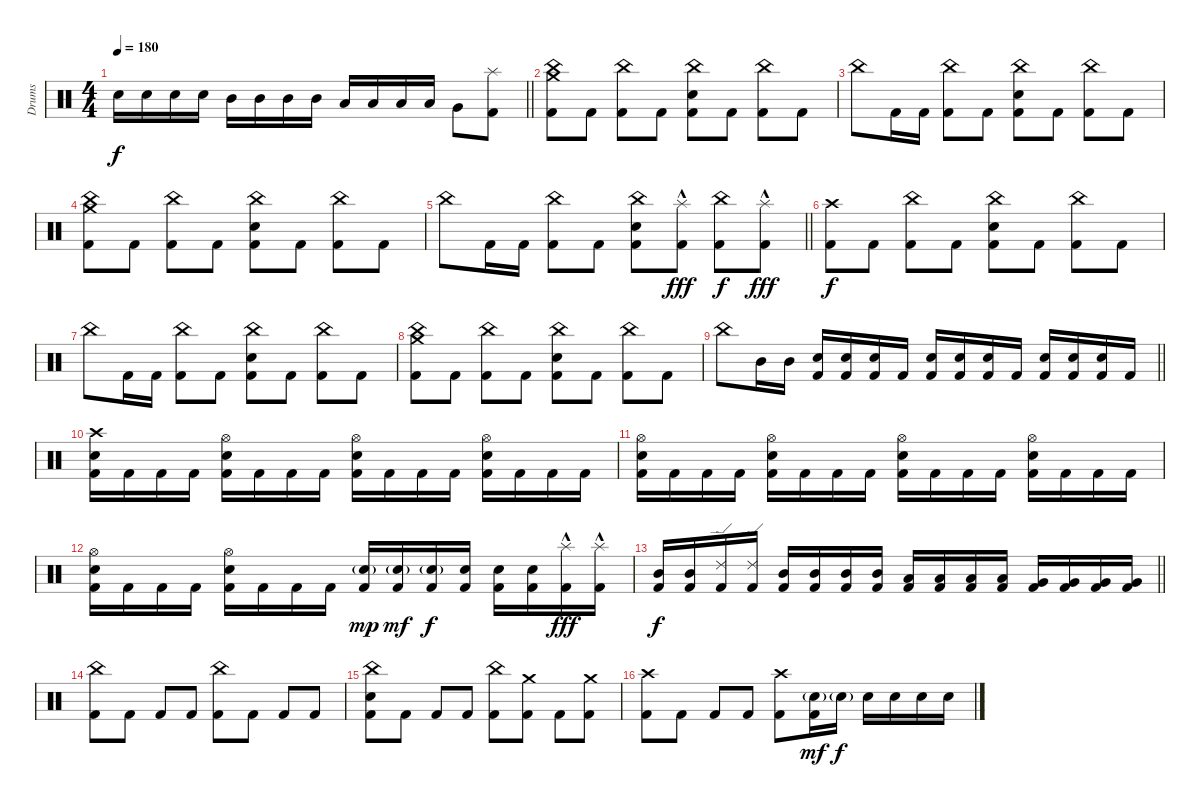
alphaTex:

\track ("Drums" "Drums") {instrument percussion}
\staff {score}
\articulation defaults
\ts (4 4)
\tempo 180
\clef neutral
\barLineRight lightlight
\ks c "Electric Snare (hit)".16{dy f} "Electric Snare (hit)".16 "Electric Snare (hit)".16 "Electric Snare (hit)".16 "Mid Tom (hit)".16 "Mid Tom (hit)".16 "Mid Tom (hit)".16 "Mid Tom (hit)".16 "Low Tom (hit)".16 "Low Tom (hit)".16 "Low Tom (hit)".16 "Low Tom (hit)".16 "Very Low Tom (hit)".8
("Splash (hit)" "Kick (hit) 2").8 |
("China (hit)" "Crash medium (hit)" "Kick (hit) 2").8 "Kick (hit) 2".8 ("China (hit)" "Kick (hit) 2").8 "Kick (hit) 2".8 ("China (hit)" "Electric Snare (hit)" "Kick (hit) 2").8 "Kick (hit) 2".8 ("China (hit)" "Kick (hit) 2").8 "Kick (hit) 2".8 |
"China (hit)".8 "Kick (hit) 2".16 "Kick (hit) 2".16 ("China (hit)" "Kick (hit) 2").8 "Kick (hit) 2".8 ("China (hit)" "Electric Snare (hit)" "Kick (hit) 2").8 "Kick (hit) 2".8 ("China (hit)" "Kick (hit) 2").8 "Kick (hit) 2".8 |
("China (hit)" "Crash medium (hit)" "Kick (hit) 2").8 "Kick (hit) 2".8 ("China (hit)" "Kick (hit) 2").8 "Kick (hit) 2".8 ("China (hit)" "Electric Snare (hit)" "Kick (hit) 2").8 "Kick (hit) 2".8 ("China (hit)" "Kick (hit) 2").8 "Kick (hit) 2".8 |
\barLineRight lightlight "China (hit)".8 "Kick (hit) 2".16 "Kick (hit) 2".16
("China (hit)" "Kick (hit) 2").8 "Kick (hit) 2".8 ("China (hit)" "Electric Snare (hit)" "Kick (hit) 2").8 ("Splash (hit)"{hac} "Kick (hit) 2").8{dy fff} ("China (hit)" "Kick (hit) 2").8{dy f} ("Splash (hit)"{hac} "Kick (hit) 2").8{dy fff} |
("Crash high (hit)" "Kick (hit) 2").8{dy f} "Kick (hit) 2".8 ("China (hit)" "Kick (hit) 2").8 "Kick (hit) 2".8 ("China (hit)" "Electric Snare (hit)" "Kick (hit) 2").8 "Kick (hit) 2".8 ("China (hit)" "Kick (hit) 2").8 "Kick (hit) 2".8 |
"China (hit)".8 "Kick (hit) 2".16 "Kick (hit) 2".16 ("China (hit)" "Kick (hit) 2").8 "Kick (hit) 2".8 ("China (hit)" "Electric Snare (hit)" "Kick (hit) 2").8 "Kick (hit) 2".8 ("China (hit)" "Kick (hit) 2").8 "Kick (hit) 2".8 |
("China (hit)" "Crash medium (hit)" "Kick (hit) 2").8 "Kick (hit) 2".8 ("China (hit)" "Kick (hit) 2").8 "Kick (hit) 2".8 ("China (hit)" "Electric Snare (hit)" "Kick (hit) 2").8 "Kick (hit) 2".8 ("China (hit)" "Kick (hit) 2").8 "Kick (hit) 2".8 |
\barLineRight lightlight "China (hit)".8 "Mid Tom (hit)".16 "Mid Tom (hit)".16
("Electric Snare (hit)" "Kick (hit) 2").16 ("Electric Snare (hit)" "Kick (hit) 2").16 ("Electric Snare (hit)" "Kick (hit) 2").16 "Kick (hit) 2".16 ("Electric Snare (hit)" "Kick (hit) 2").16 ("Electric Snare (hit)" "Kick (hit) 2").16 ("Electric Snare (hit)" "Kick (hit) 2").16 "Kick (hit) 2".16 ("Electric Snare (hit)" "Kick (hit) 2").16 ("Electric Snare (hit)" "Kick (hit) 2").16 ("Electric Snare (hit)" "Kick (hit) 2").16 "Kick (hit) 2".16 |
("Crash high (hit)" "Electric Snare (hit)" "Kick (hit) 2").16 "Kick (hit) 2".16 "Kick (hit) 2".16 "Kick (hit) 2".16 ("Hi-Hat (open)" "Electric Snare (hit)" "Kick (hit) 2").16 "Kick (hit) 2".16 "Kick (hit) 2".16 "Kick (hit) 2".16 ("Hi-Hat (open)" "Electric Snare (hit)" "Kick (hit) 2").16 "Kick (hit) 2".16 "Kick (hit) 2".16 "Kick (hit) 2".16 ("Hi-Hat (open)" "Electric Snare (hit)" "Kick (hit) 2").16 "Kick (hit) 2".16 "Kick (hit) 2".16 "Kick (hit) 2".16 |
("Hi-Hat (open)" "Electric Snare (hit)" "Kick (hit) 2").16 "Kick (hit) 2".16 "Kick (hit) 2".16 "Kick (hit) 2".16 ("Hi-Hat (open)" "Electric Snare (hit)" "Kick (hit) 2").16 "Kick (hit) 2".16 "Kick (hit) 2".16 "Kick (hit) 2".16 ("Hi-Hat (open)" "Electric Snare (hit)" "Kick (hit) 2").16 "Kick (hit) 2".16 "Kick (hit) 2".16 "Kick (hit) 2".16 ("Hi-Hat (open)" "Electric Snare (hit)" "Kick (hit) 2").16 "Kick (hit) 2".16 "Kick (hit) 2".16 "Kick (hit) 2".16 |
("Hi-Hat (open)" "Electric Snare (hit)" "Kick (hit) 2").16 "Kick (hit) 2".16 "Kick (hit) 2".16 "Kick (hit) 2".16 ("Hi-Hat (open)" "Electric Snare (hit)" "Kick (hit) 2").16 "Kick (hit) 2".16 "Kick (hit) 2".16 "Kick (hit) 2".16 ("Electric Snare (hit)"{g} "Kick (hit) 2").16{dy mp} ("Electric Snare (hit)"{g} "Kick (hit) 2").16{dy mf} ("Electric Snare (hit)"{g} "Kick (hit) 2").16{dy f} ("Electric Snare (hit)" "Kick (hit) 2").16 ("Electric Snare (hit)" "Kick (hit) 2").16 ("Electric Snare (hit)" "Kick (hit) 2").16 ("Splash (hit)"{hac} "Kick (hit) 2").16{dy fff} ("Splash (hit)"{hac} "Kick (hit) 2").16 |
\barLineRight lightlight
("Mid Tom (hit)" "Kick (hit) 2").16{dy f} ("Mid Tom (hit)" "Kick (hit) 2").16 ("Ride (edge) 2" "Kick (hit) 2").16 ("Ride (edge) 2" "Kick (hit) 2").16 ("Mid Tom (hit)" "Kick (hit) 2").16 ("Mid Tom (hit)" "Kick (hit) 2").16 ("Mid Tom (hit)" "Kick (hit) 2").16 ("Mid Tom (hit)" "Kick (hit) 2").16 ("Low Tom (hit)" "Kick (hit) 2").16 ("Low Tom (hit)" "Kick (hit) 2").16 ("Low Tom (hit)" "Kick (hit) 2").16 ("Low Tom (hit)" "Kick (hit) 2").16 ("Very Low Tom (hit)" "Kick (hit) 2").16 ("Very Low Tom (hit)" "Kick (hit) 2").16 ("Very Low Tom (hit)" "Kick (hit) 2").16 ("Very Low Tom (hit)" "Kick (hit) 2").16 |
("China (hit)" "Kick (hit) 2").8 "Kick (hit) 2".8 "Kick (hit) 2".8 "Kick (hit) 2".8 ("China (hit)" "Kick (hit) 2").8 "Kick (hit) 2".8 "Kick (hit) 2".8 "Kick (hit) 2".8 |
("China (hit)" "Electric Snare (hit)" "Kick (hit) 2").8 "Kick (hit) 2".8 "Kick (hit) 2".8 "Kick (hit) 2".8 ("China (hit)" "Kick (hit) 2").8 ("Crash medium (hit)" "Kick (hit) 2").8 "Kick (hit) 2".8 ("Crash medium (hit)" "Kick (hit) 2").8 |
("Crash high (hit)" "Kick (hit) 2").8 "Kick (hit) 2".8 "Kick (hit) 2".8 "Kick (hit) 2".8 ("Crash high (hit)" "Kick (hit) 2").8 ("Electric Snare (hit)"{g} "Kick (hit) 2").16{dy mf} "Electric Snare (hit)"{g}.16{dy f} "Electric Snare (hit)".16 "Electric Snare (hit)".16 "Electric Snare (hit)".16 "Electric Snare (hit)".16
